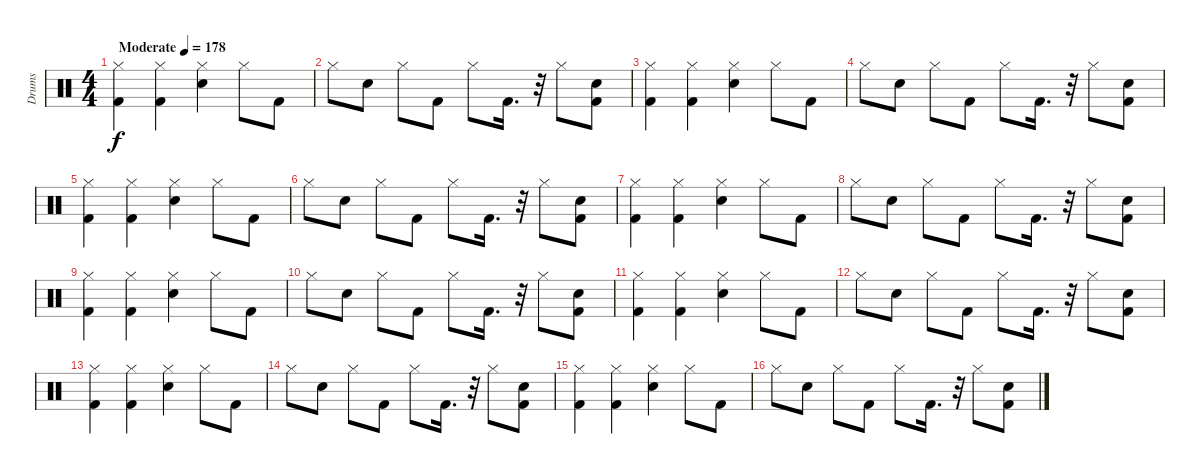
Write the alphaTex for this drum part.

\track ("Drums" "Drums") {instrument percussion}
\staff {score}
\articulation defaults
\ts (4 4)
\tempo (178 "Moderate")
\clef neutral
\ks c
("Hi-Hat (closed)" "Kick (hit) 2").4{dy f} ("Hi-Hat (closed)" "Kick (hit) 2").4 ("Snare (hit) 2" "Hi-Hat (closed)").4 "Hi-Hat (closed)".8 "Kick (hit) 2".8 |
"Hi-Hat (closed)".8 "Snare (hit) 2".8 "Hi-Hat (closed)".8 "Kick (hit) 2".8 "Hi-Hat (closed)".8 "Kick (hit) 2".16{d} r.32 "Hi-Hat (closed)".8 ("Kick (hit) 2" "Snare (hit) 2").8 |
("Hi-Hat (closed)" "Kick (hit) 2").4 ("Hi-Hat (closed)" "Kick (hit) 2").4 ("Snare (hit) 2" "Hi-Hat (closed)").4 "Hi-Hat (closed)".8 "Kick (hit) 2".8 |
"Hi-Hat (closed)".8 "Snare (hit) 2".8 "Hi-Hat (closed)".8 "Kick (hit) 2".8 "Hi-Hat (closed)".8 "Kick (hit) 2".16{d} r.32 "Hi-Hat (closed)".8 ("Kick (hit) 2" "Snare (hit) 2").8 |
("Hi-Hat (closed)" "Kick (hit) 2").4 ("Hi-Hat (closed)" "Kick (hit) 2").4 ("Snare (hit) 2" "Hi-Hat (closed)").4 "Hi-Hat (closed)".8 "Kick (hit) 2".8 |
"Hi-Hat (closed)".8 "Snare (hit) 2".8 "Hi-Hat (closed)".8 "Kick (hit) 2".8 "Hi-Hat (closed)".8 "Kick (hit) 2".16{d} r.32 "Hi-Hat (closed)".8 ("Kick (hit) 2" "Snare (hit) 2").8 |
("Hi-Hat (closed)" "Kick (hit) 2").4 ("Hi-Hat (closed)" "Kick (hit) 2").4 ("Snare (hit) 2" "Hi-Hat (closed)").4 "Hi-Hat (closed)".8 "Kick (hit) 2".8 |
"Hi-Hat (closed)".8 "Snare (hit) 2".8 "Hi-Hat (closed)".8 "Kick (hit) 2".8 "Hi-Hat (closed)".8 "Kick (hit) 2".16{d} r.32 "Hi-Hat (closed)".8 ("Kick (hit) 2" "Snare (hit) 2").8 |
("Hi-Hat (closed)" "Kick (hit) 2").4 ("Hi-Hat (closed)" "Kick (hit) 2").4 ("Snare (hit) 2" "Hi-Hat (closed)").4 "Hi-Hat (closed)".8 "Kick (hit) 2".8 |
"Hi-Hat (closed)".8 "Snare (hit) 2".8 "Hi-Hat (closed)".8 "Kick (hit) 2".8 "Hi-Hat (closed)".8 "Kick (hit) 2".16{d} r.32 "Hi-Hat (closed)".8 ("Kick (hit) 2" "Snare (hit) 2").8 |
("Hi-Hat (closed)" "Kick (hit) 2").4 ("Hi-Hat (closed)" "Kick (hit) 2").4 ("Snare (hit) 2" "Hi-Hat (closed)").4 "Hi-Hat (closed)".8 "Kick (hit) 2".8 |
"Hi-Hat (closed)".8 "Snare (hit) 2".8 "Hi-Hat (closed)".8 "Kick (hit) 2".8 "Hi-Hat (closed)".8 "Kick (hit) 2".16{d} r.32 "Hi-Hat (closed)".8 ("Kick (hit) 2" "Snare (hit) 2").8 |
("Hi-Hat (closed)" "Kick (hit) 2").4 ("Hi-Hat (closed)" "Kick (hit) 2").4 ("Snare (hit) 2" "Hi-Hat (closed)").4 "Hi-Hat (closed)".8 "Kick (hit) 2".8 |
"Hi-Hat (closed)".8 "Snare (hit) 2".8 "Hi-Hat (closed)".8 "Kick (hit) 2".8 "Hi-Hat (closed)".8 "Kick (hit) 2".16{d} r.32 "Hi-Hat (closed)".8 ("Kick (hit) 2" "Snare (hit) 2").8 |
("Hi-Hat (closed)" "Kick (hit) 2").4 ("Hi-Hat (closed)" "Kick (hit) 2").4 ("Snare (hit) 2" "Hi-Hat (closed)").4 "Hi-Hat (closed)".8 "Kick (hit) 2".8 |
"Hi-Hat (closed)".8 "Snare (hit) 2".8 "Hi-Hat (closed)".8 "Kick (hit) 2".8 "Hi-Hat (closed)".8 "Kick (hit) 2".16{d} r.32 "Hi-Hat (closed)".8 ("Kick (hit) 2" "Snare (hit) 2").8
